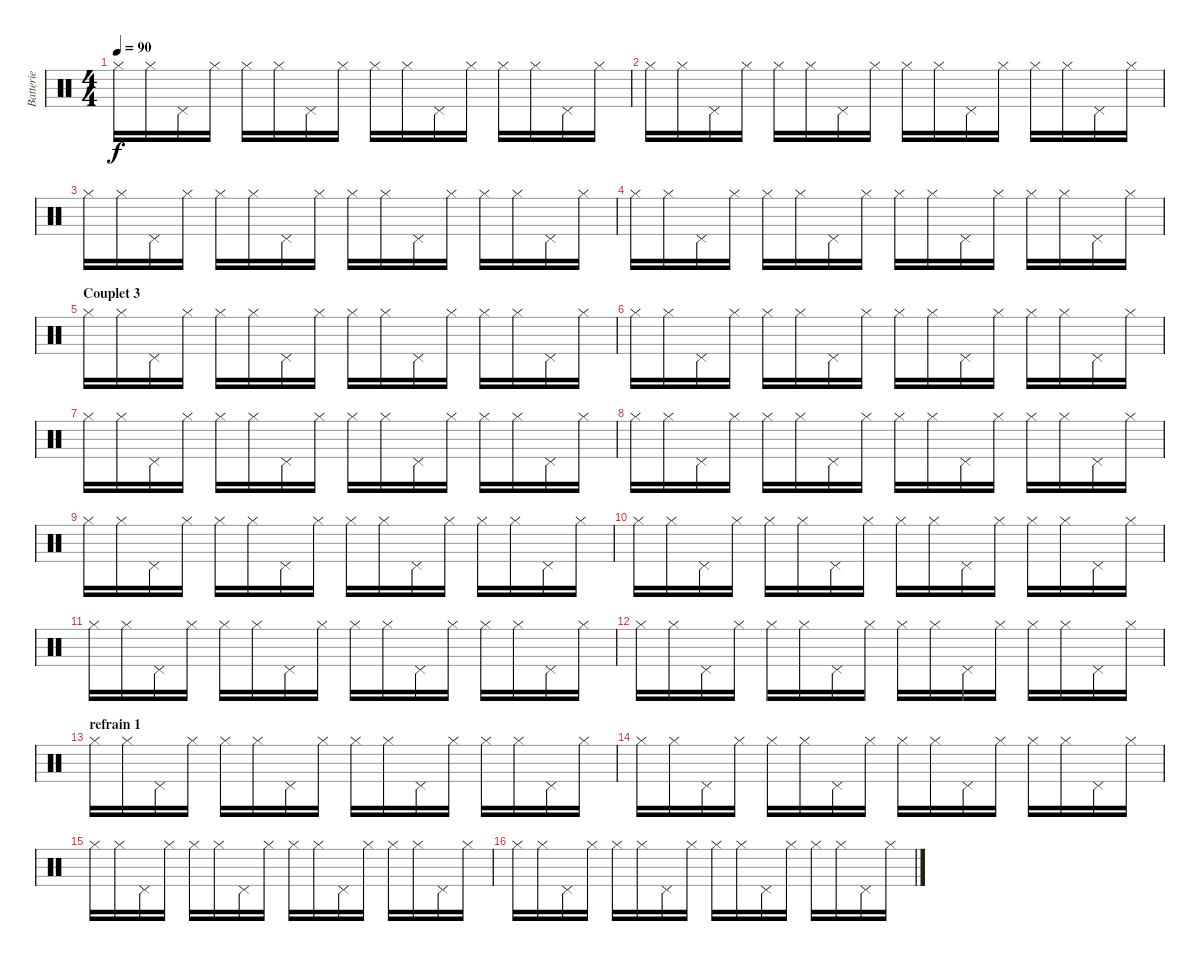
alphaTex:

\track ("Batterie" "Batterie") {instrument percussion}
\staff {score}
\articulation defaults
\ts (4 4)
\tempo 90
\clef neutral
\ks c "Hi-Hat (closed)".16{dy f} "Hi-Hat (closed)".16 "Pedal Hi-Hat (hit)".16 "Hi-Hat (closed)".16 "Hi-Hat (closed)".16 "Hi-Hat (closed)".16 "Pedal Hi-Hat (hit)".16 "Hi-Hat (closed)".16 "Hi-Hat (closed)".16 "Hi-Hat (closed)".16 "Pedal Hi-Hat (hit)".16 "Hi-Hat (closed)".16 "Hi-Hat (closed)".16 "Hi-Hat (closed)".16 "Pedal Hi-Hat (hit)".16 "Hi-Hat (closed)".16
|
"Hi-Hat (closed)".16 "Hi-Hat (closed)".16 "Pedal Hi-Hat (hit)".16 "Hi-Hat (closed)".16 "Hi-Hat (closed)".16 "Hi-Hat (closed)".16 "Pedal Hi-Hat (hit)".16 "Hi-Hat (closed)".16 "Hi-Hat (closed)".16 "Hi-Hat (closed)".16 "Pedal Hi-Hat (hit)".16 "Hi-Hat (closed)".16 "Hi-Hat (closed)".16 "Hi-Hat (closed)".16 "Pedal Hi-Hat (hit)".16 "Hi-Hat (closed)".16 |
"Hi-Hat (closed)".16 "Hi-Hat (closed)".16 "Pedal Hi-Hat (hit)".16 "Hi-Hat (closed)".16 "Hi-Hat (closed)".16 "Hi-Hat (closed)".16 "Pedal Hi-Hat (hit)".16 "Hi-Hat (closed)".16 "Hi-Hat (closed)".16 "Hi-Hat (closed)".16 "Pedal Hi-Hat (hit)".16 "Hi-Hat (closed)".16 "Hi-Hat (closed)".16 "Hi-Hat (closed)".16 "Pedal Hi-Hat (hit)".16 "Hi-Hat (closed)".16 |
"Hi-Hat (closed)".16 "Hi-Hat (closed)".16 "Pedal Hi-Hat (hit)".16 "Hi-Hat (closed)".16 "Hi-Hat (closed)".16 "Hi-Hat (closed)".16 "Pedal Hi-Hat (hit)".16 "Hi-Hat (closed)".16 "Hi-Hat (closed)".16 "Hi-Hat (closed)".16 "Pedal Hi-Hat (hit)".16 "Hi-Hat (closed)".16 "Hi-Hat (closed)".16 "Hi-Hat (closed)".16 "Pedal Hi-Hat (hit)".16 "Hi-Hat (closed)".16 |
\section ("" "Couplet 3")
"Hi-Hat (closed)".16 "Hi-Hat (closed)".16 "Pedal Hi-Hat (hit)".16 "Hi-Hat (closed)".16 "Hi-Hat (closed)".16 "Hi-Hat (closed)".16 "Pedal Hi-Hat (hit)".16 "Hi-Hat (closed)".16 "Hi-Hat (closed)".16 "Hi-Hat (closed)".16 "Pedal Hi-Hat (hit)".16 "Hi-Hat (closed)".16 "Hi-Hat (closed)".16 "Hi-Hat (closed)".16 "Pedal Hi-Hat (hit)".16 "Hi-Hat (closed)".16 |
"Hi-Hat (closed)".16 "Hi-Hat (closed)".16 "Pedal Hi-Hat (hit)".16 "Hi-Hat (closed)".16 "Hi-Hat (closed)".16 "Hi-Hat (closed)".16 "Pedal Hi-Hat (hit)".16 "Hi-Hat (closed)".16 "Hi-Hat (closed)".16 "Hi-Hat (closed)".16 "Pedal Hi-Hat (hit)".16 "Hi-Hat (closed)".16 "Hi-Hat (closed)".16 "Hi-Hat (closed)".16 "Pedal Hi-Hat (hit)".16 "Hi-Hat (closed)".16 |
"Hi-Hat (closed)".16 "Hi-Hat (closed)".16 "Pedal Hi-Hat (hit)".16 "Hi-Hat (closed)".16 "Hi-Hat (closed)".16 "Hi-Hat (closed)".16 "Pedal Hi-Hat (hit)".16 "Hi-Hat (closed)".16 "Hi-Hat (closed)".16 "Hi-Hat (closed)".16 "Pedal Hi-Hat (hit)".16 "Hi-Hat (closed)".16 "Hi-Hat (closed)".16 "Hi-Hat (closed)".16 "Pedal Hi-Hat (hit)".16 "Hi-Hat (closed)".16 |
"Hi-Hat (closed)".16 "Hi-Hat (closed)".16 "Pedal Hi-Hat (hit)".16 "Hi-Hat (closed)".16 "Hi-Hat (closed)".16 "Hi-Hat (closed)".16 "Pedal Hi-Hat (hit)".16 "Hi-Hat (closed)".16 "Hi-Hat (closed)".16 "Hi-Hat (closed)".16 "Pedal Hi-Hat (hit)".16 "Hi-Hat (closed)".16 "Hi-Hat (closed)".16 "Hi-Hat (closed)".16 "Pedal Hi-Hat (hit)".16 "Hi-Hat (closed)".16 |
"Hi-Hat (closed)".16 "Hi-Hat (closed)".16 "Pedal Hi-Hat (hit)".16 "Hi-Hat (closed)".16 "Hi-Hat (closed)".16 "Hi-Hat (closed)".16 "Pedal Hi-Hat (hit)".16 "Hi-Hat (closed)".16 "Hi-Hat (closed)".16 "Hi-Hat (closed)".16 "Pedal Hi-Hat (hit)".16 "Hi-Hat (closed)".16 "Hi-Hat (closed)".16 "Hi-Hat (closed)".16 "Pedal Hi-Hat (hit)".16 "Hi-Hat (closed)".16 |
"Hi-Hat (closed)".16 "Hi-Hat (closed)".16 "Pedal Hi-Hat (hit)".16 "Hi-Hat (closed)".16 "Hi-Hat (closed)".16 "Hi-Hat (closed)".16 "Pedal Hi-Hat (hit)".16 "Hi-Hat (closed)".16 "Hi-Hat (closed)".16 "Hi-Hat (closed)".16 "Pedal Hi-Hat (hit)".16 "Hi-Hat (closed)".16 "Hi-Hat (closed)".16 "Hi-Hat (closed)".16 "Pedal Hi-Hat (hit)".16 "Hi-Hat (closed)".16 |
"Hi-Hat (closed)".16 "Hi-Hat (closed)".16 "Pedal Hi-Hat (hit)".16 "Hi-Hat (closed)".16 "Hi-Hat (closed)".16 "Hi-Hat (closed)".16 "Pedal Hi-Hat (hit)".16 "Hi-Hat (closed)".16 "Hi-Hat (closed)".16 "Hi-Hat (closed)".16 "Pedal Hi-Hat (hit)".16 "Hi-Hat (closed)".16 "Hi-Hat (closed)".16 "Hi-Hat (closed)".16 "Pedal Hi-Hat (hit)".16 "Hi-Hat (closed)".16 |
"Hi-Hat (closed)".16 "Hi-Hat (closed)".16 "Pedal Hi-Hat (hit)".16 "Hi-Hat (closed)".16 "Hi-Hat (closed)".16 "Hi-Hat (closed)".16 "Pedal Hi-Hat (hit)".16 "Hi-Hat (closed)".16 "Hi-Hat (closed)".16 "Hi-Hat (closed)".16 "Pedal Hi-Hat (hit)".16 "Hi-Hat (closed)".16 "Hi-Hat (closed)".16 "Hi-Hat (closed)".16 "Pedal Hi-Hat (hit)".16 "Hi-Hat (closed)".16 |
\section ("" "refrain 1")
"Hi-Hat (closed)".16 "Hi-Hat (closed)".16 "Pedal Hi-Hat (hit)".16 "Hi-Hat (closed)".16 "Hi-Hat (closed)".16 "Hi-Hat (closed)".16 "Pedal Hi-Hat (hit)".16 "Hi-Hat (closed)".16 "Hi-Hat (closed)".16 "Hi-Hat (closed)".16 "Pedal Hi-Hat (hit)".16 "Hi-Hat (closed)".16 "Hi-Hat (closed)".16 "Hi-Hat (closed)".16 "Pedal Hi-Hat (hit)".16 "Hi-Hat (closed)".16 |
"Hi-Hat (closed)".16 "Hi-Hat (closed)".16 "Pedal Hi-Hat (hit)".16 "Hi-Hat (closed)".16 "Hi-Hat (closed)".16 "Hi-Hat (closed)".16 "Pedal Hi-Hat (hit)".16 "Hi-Hat (closed)".16 "Hi-Hat (closed)".16 "Hi-Hat (closed)".16 "Pedal Hi-Hat (hit)".16 "Hi-Hat (closed)".16 "Hi-Hat (closed)".16 "Hi-Hat (closed)".16 "Pedal Hi-Hat (hit)".16 "Hi-Hat (closed)".16 |
"Hi-Hat (closed)".16 "Hi-Hat (closed)".16 "Pedal Hi-Hat (hit)".16 "Hi-Hat (closed)".16 "Hi-Hat (closed)".16 "Hi-Hat (closed)".16 "Pedal Hi-Hat (hit)".16 "Hi-Hat (closed)".16 "Hi-Hat (closed)".16 "Hi-Hat (closed)".16 "Pedal Hi-Hat (hit)".16 "Hi-Hat (closed)".16 "Hi-Hat (closed)".16 "Hi-Hat (closed)".16 "Pedal Hi-Hat (hit)".16 "Hi-Hat (closed)".16 |
"Hi-Hat (closed)".16 "Hi-Hat (closed)".16 "Pedal Hi-Hat (hit)".16 "Hi-Hat (closed)".16 "Hi-Hat (closed)".16 "Hi-Hat (closed)".16 "Pedal Hi-Hat (hit)".16 "Hi-Hat (closed)".16 "Hi-Hat (closed)".16 "Hi-Hat (closed)".16 "Pedal Hi-Hat (hit)".16 "Hi-Hat (closed)".16 "Hi-Hat (closed)".16 "Hi-Hat (closed)".16 "Pedal Hi-Hat (hit)".16 "Hi-Hat (closed)".16
